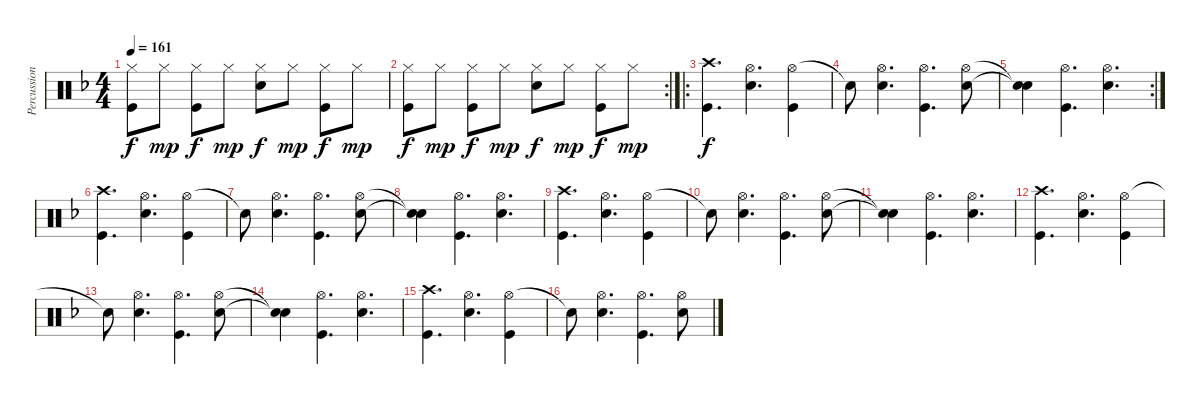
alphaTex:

\track ("Percussion" "Percussion") {instrument percussion}
\staff {score}
\articulation defaults
\ts (4 4)
\tempo 161
\clef neutral
\ks f
("Hi-Hat (closed)" "Kick (hit)").8{dy f} "Hi-Hat (closed)".8{dy mp} ("Hi-Hat (closed)" "Kick (hit)").8{dy f} "Hi-Hat (closed)".8{dy mp} ("Hi-Hat (closed)" "Electric Snare (hit)").8{dy f} "Hi-Hat (closed)".8{dy mp} ("Hi-Hat (closed)" "Kick (hit)").8{dy f} "Hi-Hat (closed)".8{dy mp} |
\rc 2
("Hi-Hat (closed)" "Kick (hit)").8{dy f} "Hi-Hat (closed)".8{dy mp} ("Hi-Hat (closed)" "Kick (hit)").8{dy f} "Hi-Hat (closed)".8{dy mp} ("Hi-Hat (closed)" "Electric Snare (hit)").8{dy f} "Hi-Hat (closed)".8{dy mp} ("Hi-Hat (closed)" "Kick (hit)").8{dy f} "Hi-Hat (closed)".8{dy mp} |
\ro
("Crash high (hit)" "Kick (hit)").4{d dy f} ("Hi-Hat (open)" "Electric Snare (hit)").4{d} ("Hi-Hat (open)" "Kick (hit)").4 |
"Snare (hit)"{t}.8 ("Hi-Hat (open)" "Electric Snare (hit)").4{d} ("Hi-Hat (open)" "Kick (hit)").4{d} ("Hi-Hat (open)" "Electric Snare (hit)").8 |
\rc 2
("Snare (hit)"{t} "Snare (hit)"{t}).4 ("Hi-Hat (open)" "Kick (hit)").4{d} ("Hi-Hat (open)" "Electric Snare (hit)").4{d} |
("Crash high (hit)" "Kick (hit)").4{d} ("Hi-Hat (open)" "Electric Snare (hit)").4{d} ("Hi-Hat (open)" "Kick (hit)").4 |
"Snare (hit)"{t}.8 ("Hi-Hat (open)" "Electric Snare (hit)").4{d} ("Hi-Hat (open)" "Kick (hit)").4{d} ("Hi-Hat (open)" "Electric Snare (hit)").8 |
("Snare (hit)"{t} "Snare (hit)"{t}).4 ("Hi-Hat (open)" "Kick (hit)").4{d} ("Hi-Hat (open)" "Electric Snare (hit)").4{d} |
("Crash high (hit)" "Kick (hit)").4{d} ("Hi-Hat (open)" "Electric Snare (hit)").4{d} ("Hi-Hat (open)" "Kick (hit)").4 |
"Snare (hit)"{t}.8 ("Hi-Hat (open)" "Electric Snare (hit)").4{d} ("Hi-Hat (open)" "Kick (hit)").4{d} ("Hi-Hat (open)" "Electric Snare (hit)").8 |
("Snare (hit)"{t} "Snare (hit)"{t}).4 ("Hi-Hat (open)" "Kick (hit)").4{d} ("Hi-Hat (open)" "Electric Snare (hit)").4{d} |
("Crash high (hit)" "Kick (hit)").4{d} ("Hi-Hat (open)" "Electric Snare (hit)").4{d} ("Hi-Hat (open)" "Kick (hit)").4 |
"Snare (hit)"{t}.8 ("Hi-Hat (open)" "Electric Snare (hit)").4{d} ("Hi-Hat (open)" "Kick (hit)").4{d} ("Hi-Hat (open)" "Electric Snare (hit)").8 |
("Snare (hit)"{t} "Snare (hit)"{t}).4 ("Hi-Hat (open)" "Kick (hit)").4{d} ("Hi-Hat (open)" "Electric Snare (hit)").4{d} |
("Crash high (hit)" "Kick (hit)").4{d} ("Hi-Hat (open)" "Electric Snare (hit)").4{d} ("Hi-Hat (open)" "Kick (hit)").4 |
"Snare (hit)"{t}.8 ("Hi-Hat (open)" "Electric Snare (hit)").4{d} ("Hi-Hat (open)" "Kick (hit)").4{d} ("Hi-Hat (open)" "Electric Snare (hit)").8
